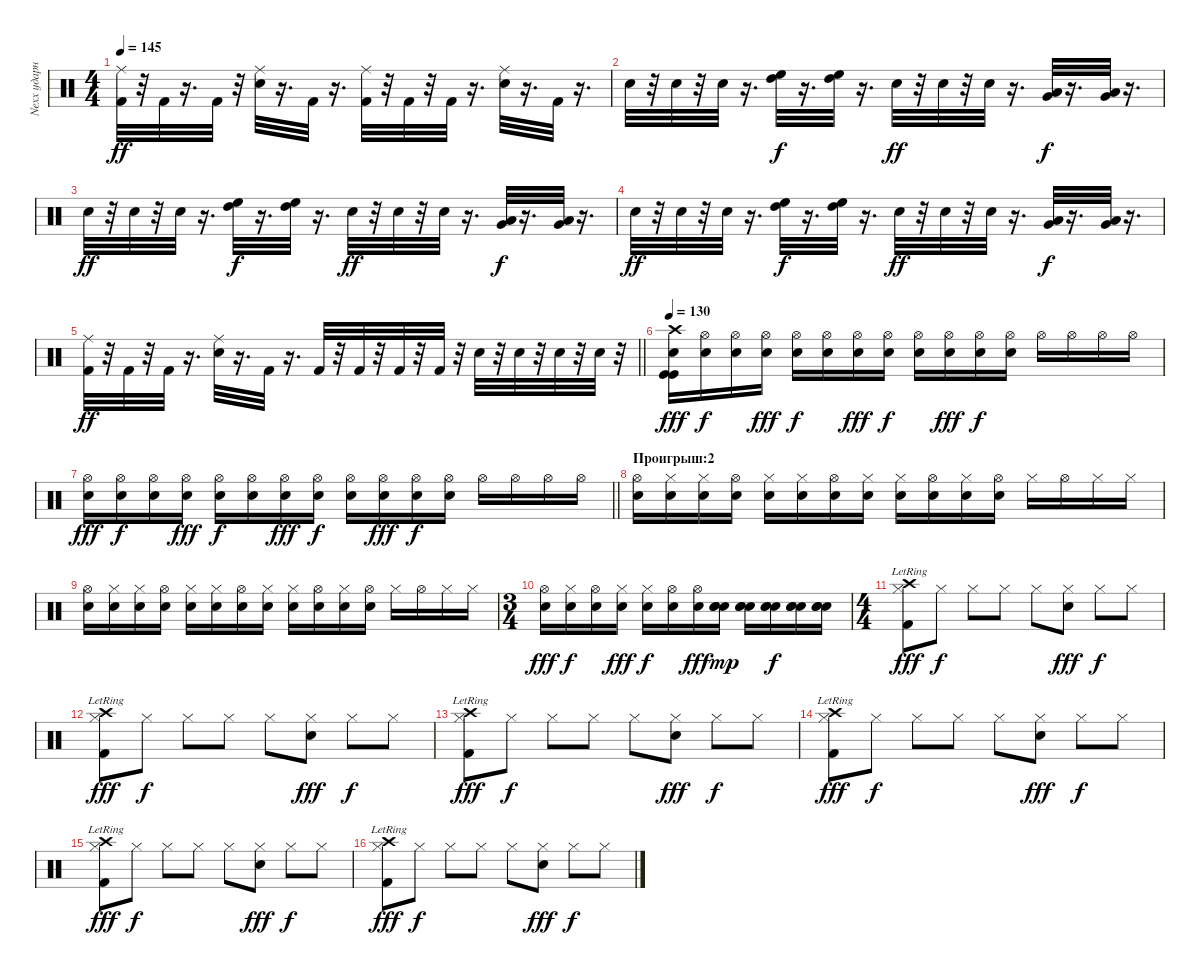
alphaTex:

\track ("Nexx ударные" "Nexx ударн") {instrument percussion}
\staff {score}
\articulation defaults
\ts (4 4)
\tempo 145
\clef neutral
\ks c
("Ride (middle)" "Kick (hit) 2").32{dy ff} r.32 "Kick (hit) 2".32 r.16{d} "Kick (hit) 2".32 r.32 ("Ride (middle)" "Electric Snare (hit)").32 r.16{d} "Kick (hit) 2".32 r.16{d} ("Ride (middle)" "Kick (hit) 2").32 r.32 "Kick (hit) 2".32 r.32 "Kick (hit) 2".32 r.16{d} ("Ride (middle)" "Electric Snare (hit)").32 r.16{d} "Kick (hit) 2".32 r.16{d} |
"Snare (hit) 2".32 r.32 "Snare (hit) 2".32 r.32 "Snare (hit) 2".32 r.16{d} ("High Floor Tom (hit)" "High Tom (hit)").32{dy f} r.16{d} ("High Tom (hit)" "High Floor Tom (hit)").32 r.16{d} "Snare (hit) 2".32{dy ff} r.32 "Snare (hit) 2".32 r.32 "Snare (hit) 2".32 r.16{d} ("Very Low Tom (hit)" "Low Tom (hit)").32{dy f} r.16{d} ("Very Low Tom (hit)" "Low Tom (hit)").32 r.16{d} |
"Snare (hit) 2".32{dy ff} r.32 "Snare (hit) 2".32 r.32 "Snare (hit) 2".32 r.16{d} ("High Floor Tom (hit)" "High Tom (hit)").32{dy f} r.16{d} ("High Tom (hit)" "High Floor Tom (hit)").32 r.16{d} "Snare (hit) 2".32{dy ff} r.32 "Snare (hit) 2".32 r.32 "Snare (hit) 2".32 r.16{d} ("Very Low Tom (hit)" "Low Tom (hit)").32{dy f} r.16{d} ("Very Low Tom (hit)" "Low Tom (hit)").32 r.16{d} |
"Snare (hit) 2".32{dy ff} r.32 "Snare (hit) 2".32 r.32 "Snare (hit) 2".32 r.16{d} ("High Floor Tom (hit)" "High Tom (hit)").32{dy f} r.16{d} ("High Tom (hit)" "High Floor Tom (hit)").32 r.16{d} "Snare (hit) 2".32{dy ff} r.32 "Snare (hit) 2".32 r.32 "Snare (hit) 2".32 r.16{d} ("Very Low Tom (hit)" "Low Tom (hit)").32{dy f} r.16{d} ("Very Low Tom (hit)" "Low Tom (hit)").32 r.16{d} |
\barLineRight lightlight
("Ride (middle)" "Kick (hit) 2").32{dy ff} r.32 "Kick (hit) 2".32 r.32 "Kick (hit) 2".32 r.16{d} ("Ride (middle)" "Electric Snare (hit)").32 r.16{d} "Kick (hit) 2".32 r.16{d} "Kick (hit) 2".32 r.32 "Kick (hit) 2".32 r.32 "Kick (hit) 2".32 r.32 "Kick (hit) 2".32 r.32 "Electric Snare (hit)".32 r.32 "Electric Snare (hit)".32 r.32 "Electric Snare (hit)".32 r.32 "Electric Snare (hit)".32 r.32 |
\tempo 130
("Crash high (hit)" "Kick (hit)" "Kick (hit)" "Snare (hit)"{x}).16{dy fff} ("Hi-Hat (open)" "Snare (hit)"{x}).16{dy f} ("Hi-Hat (open)" "Snare (hit)"{x}).16 ("Hi-Hat (open)" "Snare (hit)"{x}).16{dy fff} ("Hi-Hat (open)" "Snare (hit)"{x}).16{dy f} ("Hi-Hat (open)" "Snare (hit)"{x}).16 ("Hi-Hat (open)" "Snare (hit)"{x}).16{dy fff} ("Hi-Hat (open)" "Snare (hit)"{x}).16{dy f} ("Hi-Hat (open)" "Snare (hit)"{x}).16 ("Hi-Hat (open)" "Snare (hit)"{x}).16{dy fff} ("Hi-Hat (open)" "Snare (hit)"{x}).16{dy f} ("Hi-Hat (open)" "Snare (hit)"{x}).16 "Hi-Hat (open)".16 "Hi-Hat (open)".16 "Hi-Hat (open)".16 "Hi-Hat (open)".16 |
\barLineRight lightlight
("Hi-Hat (open)" "Snare (hit)"{x}).16{dy fff} ("Hi-Hat (open)" "Snare (hit)"{x}).16{dy f} ("Hi-Hat (open)" "Snare (hit)"{x}).16 ("Hi-Hat (open)" "Snare (hit)"{x}).16{dy fff} ("Hi-Hat (open)" "Snare (hit)"{x}).16{dy f} ("Hi-Hat (open)" "Snare (hit)"{x}).16 ("Hi-Hat (open)" "Snare (hit)"{x}).16{dy fff} ("Hi-Hat (open)" "Snare (hit)"{x}).16{dy f} ("Hi-Hat (open)" "Snare (hit)"{x}).16 ("Hi-Hat (open)" "Snare (hit)"{x}).16{dy fff} ("Hi-Hat (open)" "Snare (hit)"{x}).16{dy f} ("Hi-Hat (open)" "Snare (hit)"{x}).16 "Hi-Hat (open)".16 "Hi-Hat (open)".16 "Hi-Hat (open)".16 "Hi-Hat (open)".16 |
\section ("" "Проигрыш:2")
("Hi-Hat (open)" "Snare (hit)"{x}).16 ("Hi-Hat (closed)" "Snare (hit)"{x}).16 ("Hi-Hat (closed)" "Snare (hit)"{x}).16 ("Hi-Hat (open)" "Snare (hit)"{x}).16 ("Hi-Hat (closed)" "Snare (hit)"{x}).16 ("Hi-Hat (closed)" "Snare (hit)"{x}).16 ("Hi-Hat (open)" "Snare (hit)"{x}).16 ("Hi-Hat (closed)" "Snare (hit)"{x}).16 ("Hi-Hat (closed)" "Snare (hit)"{x}).16 ("Hi-Hat (open)" "Snare (hit)"{x}).16 ("Hi-Hat (closed)" "Snare (hit)"{x}).16 ("Hi-Hat (open)" "Snare (hit)"{x}).16 "Hi-Hat (closed)".16 "Hi-Hat (open)".16 "Hi-Hat (closed)".16 "Hi-Hat (closed)".16 |
("Hi-Hat (open)" "Snare (hit)"{x}).16 ("Hi-Hat (closed)" "Snare (hit)"{x}).16 ("Hi-Hat (closed)" "Snare (hit)"{x}).16 ("Hi-Hat (open)" "Snare (hit)"{x}).16 ("Hi-Hat (closed)" "Snare (hit)"{x}).16 ("Hi-Hat (closed)" "Snare (hit)"{x}).16 ("Hi-Hat (open)" "Snare (hit)"{x}).16 ("Hi-Hat (closed)" "Snare (hit)"{x}).16 ("Hi-Hat (closed)" "Snare (hit)"{x}).16 ("Hi-Hat (open)" "Snare (hit)"{x}).16 ("Hi-Hat (closed)" "Snare (hit)"{x}).16 ("Hi-Hat (open)" "Snare (hit)"{x}).16 "Hi-Hat (closed)".16 "Hi-Hat (open)".16 "Hi-Hat (closed)".16 "Hi-Hat (closed)".16 |
\ts (3 4)
("Hi-Hat (open)" "Snare (hit)"{x}).16{dy fff} ("Hi-Hat (closed)" "Snare (hit)"{x}).16{dy f} ("Hi-Hat (open)" "Snare (hit)"{x}).16 ("Hi-Hat (closed)" "Snare (hit)"{x}).16{dy fff} ("Hi-Hat (closed)" "Snare (hit)"{x}).16{dy f} ("Hi-Hat (open)" "Snare (hit)"{x}).16 ("Hi-Hat (open)" "Snare (hit)"{x}).16{dy fff} ("Electric Snare (hit)" "Electric Snare (hit)" "Snare (hit)"{x}).16{dy mp} ("Electric Snare (hit)" "Electric Snare (hit)" "Snare (hit)"{x}).16 ("Electric Snare (hit)" "Electric Snare (hit)" "Snare (hit)"{x}).16{dy f} ("Electric Snare (hit)" "Electric Snare (hit)" "Snare (hit)"{x}).16 ("Electric Snare (hit)" "Electric Snare (hit)" "Snare (hit)"{x}).16 |
\ts (4 4)
("Hi-Hat (closed)" "Kick (hit) 2" "Crash high (hit)"{lr}).8{dy fff} "Hi-Hat (closed)".8{dy f} "Hi-Hat (closed)".8 "Hi-Hat (closed)".8 "Hi-Hat (closed)".8 ("Hi-Hat (closed)" "Snare (hit) 2").8{dy fff} "Hi-Hat (closed)".8{dy f} "Hi-Hat (closed)".8 |
("Hi-Hat (closed)" "Kick (hit) 2" "Crash high (hit)"{lr}).8{dy fff} "Hi-Hat (closed)".8{dy f} "Hi-Hat (closed)".8 "Hi-Hat (closed)".8 "Hi-Hat (closed)".8 ("Hi-Hat (closed)" "Snare (hit) 2").8{dy fff} "Hi-Hat (closed)".8{dy f} "Hi-Hat (closed)".8 |
("Hi-Hat (closed)" "Kick (hit) 2" "Crash high (hit)"{lr}).8{dy fff} "Hi-Hat (closed)".8{dy f} "Hi-Hat (closed)".8 "Hi-Hat (closed)".8 "Hi-Hat (closed)".8 ("Hi-Hat (closed)" "Snare (hit) 2").8{dy fff} "Hi-Hat (closed)".8{dy f} "Hi-Hat (closed)".8 |
("Hi-Hat (closed)" "Kick (hit) 2" "Crash high (hit)"{lr}).8{dy fff} "Hi-Hat (closed)".8{dy f} "Hi-Hat (closed)".8 "Hi-Hat (closed)".8 "Hi-Hat (closed)".8 ("Hi-Hat (closed)" "Snare (hit) 2").8{dy fff} "Hi-Hat (closed)".8{dy f} "Hi-Hat (closed)".8 |
("Hi-Hat (closed)" "Kick (hit) 2" "Crash high (hit)"{lr}).8{dy fff} "Hi-Hat (closed)".8{dy f} "Hi-Hat (closed)".8 "Hi-Hat (closed)".8 "Hi-Hat (closed)".8 ("Hi-Hat (closed)" "Snare (hit) 2").8{dy fff} "Hi-Hat (closed)".8{dy f} "Hi-Hat (closed)".8 |
("Hi-Hat (closed)" "Kick (hit) 2" "Crash high (hit)"{lr}).8{dy fff} "Hi-Hat (closed)".8{dy f} "Hi-Hat (closed)".8 "Hi-Hat (closed)".8 "Hi-Hat (closed)".8 ("Hi-Hat (closed)" "Snare (hit) 2").8{dy fff} "Hi-Hat (closed)".8{dy f} "Hi-Hat (closed)".8
